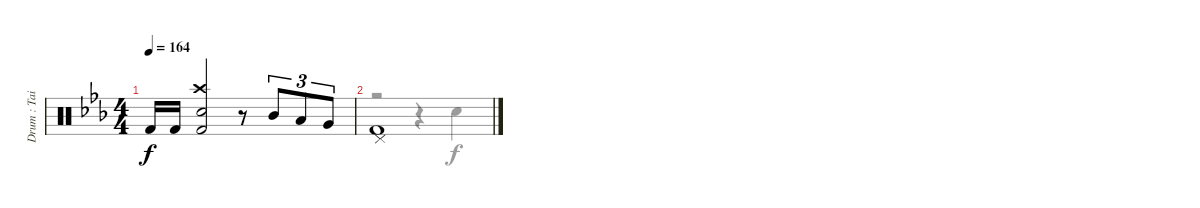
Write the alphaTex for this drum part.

\track ("Drum : Tainaka Ritsu - Chan" "Drum : Tai") {instrument percussion}
\staff {score}
\articulation defaults
\voice
\ts (4 4)
\tempo 164
\clef neutral
\ks eb "Kick (hit) 2".16{dy f} "Kick (hit) 2".16
("Crash high (hit)" "Electric Snare (hit)" "Kick (hit) 2").2 r.8 "Mid Tom (hit)".8{tu (3 2)} "Low Tom (hit)".8{tu (3 2)} "Very Low Tom (hit)".8{tu (3 2)} |
("Pedal Hi-Hat (hit)" "Kick (hit) 2").1
\voice
\clef neutral
\ottava regular
\simile none
\ks eb
|
r.2 r.4 "Hand Clap (hit)".4
